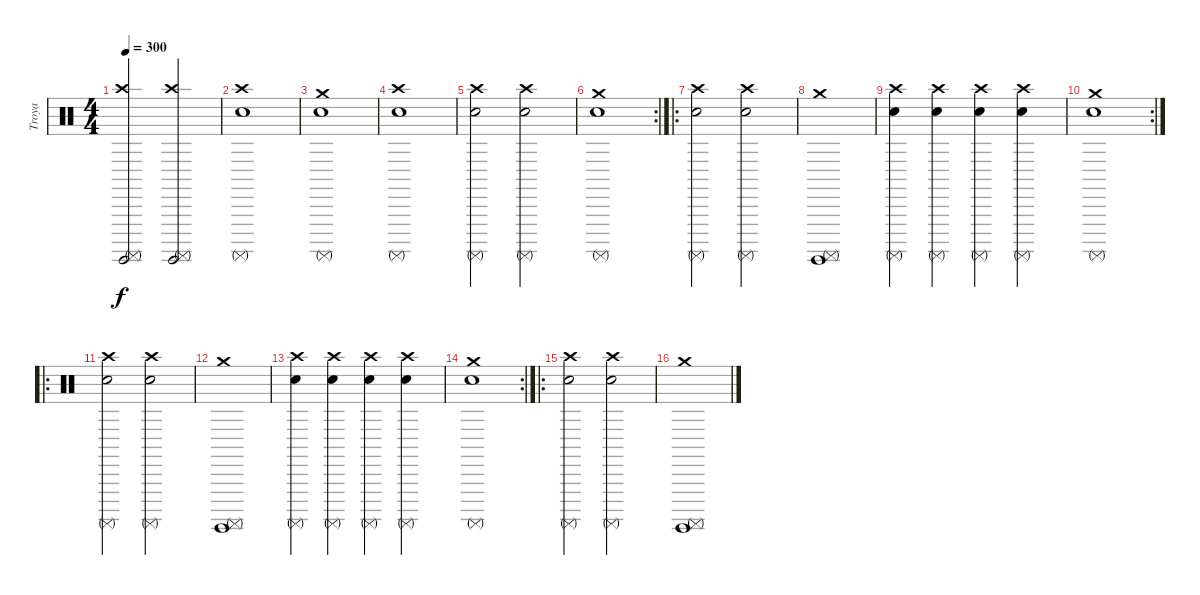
\track ("Troya" "Troya") {instrument percussion}
\staff {score}
\articulation defaults
\ts (4 4)
\tempo 300
\clef neutral
\ks c
("Crash high (hit)" "Surdo (hit)" "Surdo (mute)").2{dy f} ("Crash high (hit)" "Surdo (hit)" "Surdo (mute)").2 |
("Crash high (hit)" "Electric Snare (hit)" "Surdo (mute)").1 |
("Crash medium (hit)" "Surdo (mute)" "Electric Snare (hit)").1 |
("Crash high (hit)" "Electric Snare (hit)" "Surdo (mute)").1 |
("Crash high (hit)" "Electric Snare (hit)" "Surdo (mute)").2 ("Crash high (hit)" "Electric Snare (hit)" "Surdo (mute)").2 |
\rc 2
("Crash medium (hit)" "Surdo (mute)" "Electric Snare (hit)").1 |
\ro
("Crash high (hit)" "Surdo (mute)" "Electric Snare (hit)").2 ("Crash high (hit)" "Surdo (mute)" "Electric Snare (hit)").2 |
("Crash medium (hit)" "Surdo (hit)" "Surdo (mute)").1 |
("Crash high (hit)" "Surdo (mute)" "Electric Snare (hit)").4 ("Crash high (hit)" "Surdo (mute)" "Electric Snare (hit)").4 ("Crash high (hit)" "Surdo (mute)" "Electric Snare (hit)").4 ("Crash high (hit)" "Surdo (mute)" "Electric Snare (hit)").4 |
\rc 2
("Crash medium (hit)" "Electric Snare (hit)" "Surdo (mute)").1 |
\ro
("Crash high (hit)" "Surdo (mute)" "Electric Snare (hit)").2 ("Crash high (hit)" "Surdo (mute)" "Electric Snare (hit)").2 |
("Crash medium (hit)" "Surdo (hit)" "Surdo (mute)").1 |
("Crash high (hit)" "Surdo (mute)" "Electric Snare (hit)").4 ("Crash high (hit)" "Surdo (mute)" "Electric Snare (hit)").4 ("Crash high (hit)" "Surdo (mute)" "Electric Snare (hit)").4 ("Crash high (hit)" "Surdo (mute)" "Electric Snare (hit)").4 |
\rc 2
("Crash medium (hit)" "Electric Snare (hit)" "Surdo (mute)").1 |
\ro
("Crash high (hit)" "Surdo (mute)" "Electric Snare (hit)").2 ("Crash high (hit)" "Surdo (mute)" "Electric Snare (hit)").2 |
("Crash medium (hit)" "Surdo (hit)" "Surdo (mute)").1
